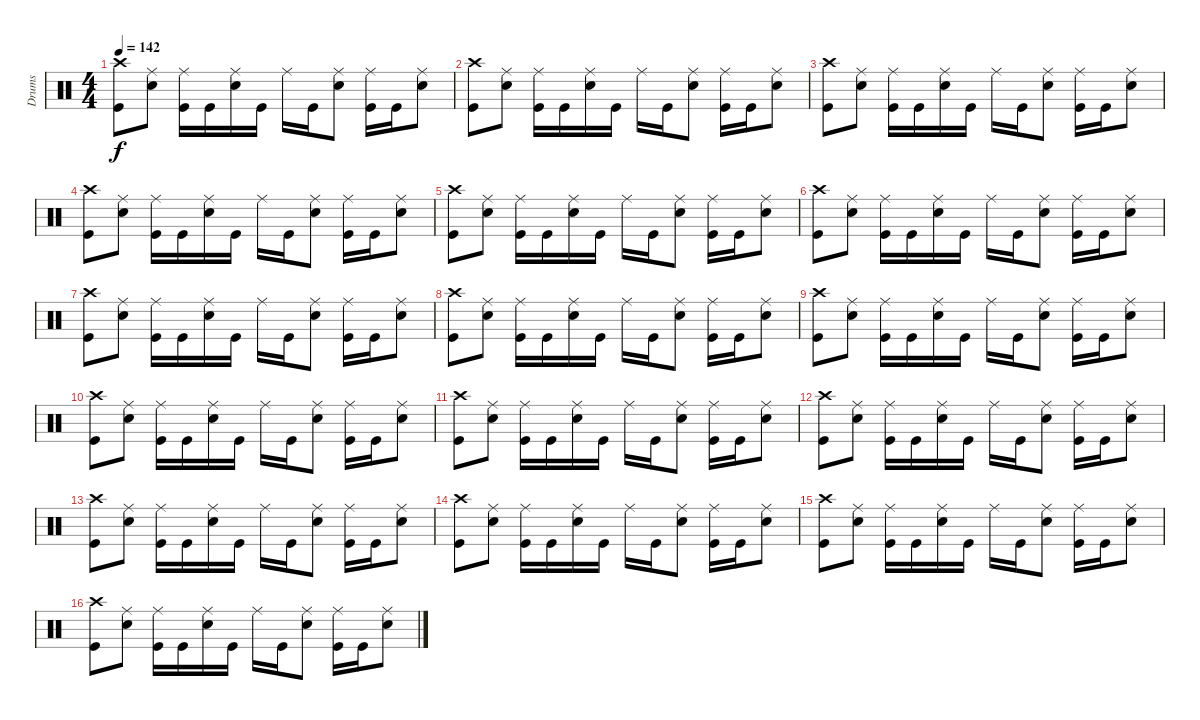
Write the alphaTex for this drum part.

\track ("Drums" "Drums") {instrument percussion}
\staff {score}
\articulation defaults
\ts (4 4)
\tempo 142
\clef neutral
\ks c
("Crash high (hit)" "Kick (hit)").8{dy f} ("Ride (middle)" "Electric Snare (hit)").8 ("Ride (middle)" "Kick (hit)").16 "Kick (hit)".16 ("Ride (middle)" "Electric Snare (hit)").16 "Kick (hit)".16 "Ride (middle)".16 "Kick (hit)".16 ("Ride (middle)" "Electric Snare (hit)").8 ("Ride (middle)" "Kick (hit)").16 "Kick (hit)".16 ("Ride (middle)" "Snare (hit) 2").8 |
("Crash high (hit)" "Kick (hit)").8 ("Ride (middle)" "Electric Snare (hit)").8 ("Ride (middle)" "Kick (hit)").16 "Kick (hit)".16 ("Ride (middle)" "Electric Snare (hit)").16 "Kick (hit)".16 "Ride (middle)".16 "Kick (hit)".16 ("Ride (middle)" "Electric Snare (hit)").8 ("Ride (middle)" "Kick (hit)").16 "Kick (hit)".16 ("Ride (middle)" "Snare (hit) 2").8 |
("Crash high (hit)" "Kick (hit)").8 ("Ride (middle)" "Electric Snare (hit)").8 ("Ride (middle)" "Kick (hit)").16 "Kick (hit)".16 ("Ride (middle)" "Electric Snare (hit)").16 "Kick (hit)".16 "Ride (middle)".16 "Kick (hit)".16 ("Ride (middle)" "Electric Snare (hit)").8 ("Ride (middle)" "Kick (hit)").16 "Kick (hit)".16 ("Ride (middle)" "Snare (hit) 2").8 |
("Crash high (hit)" "Kick (hit)").8 ("Ride (middle)" "Electric Snare (hit)").8 ("Ride (middle)" "Kick (hit)").16 "Kick (hit)".16 ("Ride (middle)" "Electric Snare (hit)").16 "Kick (hit)".16 "Ride (middle)".16 "Kick (hit)".16 ("Ride (middle)" "Electric Snare (hit)").8 ("Ride (middle)" "Kick (hit)").16 "Kick (hit)".16 ("Ride (middle)" "Snare (hit) 2").8 |
("Crash high (hit)" "Kick (hit)").8 ("Ride (middle)" "Electric Snare (hit)").8 ("Ride (middle)" "Kick (hit)").16 "Kick (hit)".16 ("Ride (middle)" "Electric Snare (hit)").16 "Kick (hit)".16 "Ride (middle)".16 "Kick (hit)".16 ("Ride (middle)" "Electric Snare (hit)").8 ("Ride (middle)" "Kick (hit)").16 "Kick (hit)".16 ("Ride (middle)" "Snare (hit) 2").8 |
("Crash high (hit)" "Kick (hit)").8 ("Ride (middle)" "Electric Snare (hit)").8 ("Ride (middle)" "Kick (hit)").16 "Kick (hit)".16 ("Ride (middle)" "Electric Snare (hit)").16 "Kick (hit)".16 "Ride (middle)".16 "Kick (hit)".16 ("Ride (middle)" "Electric Snare (hit)").8 ("Ride (middle)" "Kick (hit)").16 "Kick (hit)".16 ("Ride (middle)" "Snare (hit) 2").8 |
("Crash high (hit)" "Kick (hit)").8 ("Ride (middle)" "Electric Snare (hit)").8 ("Ride (middle)" "Kick (hit)").16 "Kick (hit)".16 ("Ride (middle)" "Electric Snare (hit)").16 "Kick (hit)".16 "Ride (middle)".16 "Kick (hit)".16 ("Ride (middle)" "Electric Snare (hit)").8 ("Ride (middle)" "Kick (hit)").16 "Kick (hit)".16 ("Ride (middle)" "Snare (hit) 2").8 |
("Crash high (hit)" "Kick (hit)").8 ("Ride (middle)" "Electric Snare (hit)").8 ("Ride (middle)" "Kick (hit)").16 "Kick (hit)".16 ("Ride (middle)" "Electric Snare (hit)").16 "Kick (hit)".16 "Ride (middle)".16 "Kick (hit)".16 ("Ride (middle)" "Electric Snare (hit)").8 ("Ride (middle)" "Kick (hit)").16 "Kick (hit)".16 ("Ride (middle)" "Snare (hit) 2").8 |
("Crash high (hit)" "Kick (hit)").8 ("Ride (middle)" "Electric Snare (hit)").8 ("Ride (middle)" "Kick (hit)").16 "Kick (hit)".16 ("Ride (middle)" "Electric Snare (hit)").16 "Kick (hit)".16 "Ride (middle)".16 "Kick (hit)".16 ("Ride (middle)" "Electric Snare (hit)").8 ("Ride (middle)" "Kick (hit)").16 "Kick (hit)".16 ("Ride (middle)" "Snare (hit) 2").8 |
("Crash high (hit)" "Kick (hit)").8 ("Ride (middle)" "Electric Snare (hit)").8 ("Ride (middle)" "Kick (hit)").16 "Kick (hit)".16 ("Ride (middle)" "Electric Snare (hit)").16 "Kick (hit)".16 "Ride (middle)".16 "Kick (hit)".16 ("Ride (middle)" "Electric Snare (hit)").8 ("Ride (middle)" "Kick (hit)").16 "Kick (hit)".16 ("Ride (middle)" "Snare (hit) 2").8 |
("Crash high (hit)" "Kick (hit)").8 ("Ride (middle)" "Electric Snare (hit)").8 ("Ride (middle)" "Kick (hit)").16 "Kick (hit)".16 ("Ride (middle)" "Electric Snare (hit)").16 "Kick (hit)".16 "Ride (middle)".16 "Kick (hit)".16 ("Ride (middle)" "Electric Snare (hit)").8 ("Ride (middle)" "Kick (hit)").16 "Kick (hit)".16 ("Ride (middle)" "Snare (hit) 2").8 |
("Crash high (hit)" "Kick (hit)").8 ("Ride (middle)" "Electric Snare (hit)").8 ("Ride (middle)" "Kick (hit)").16 "Kick (hit)".16 ("Ride (middle)" "Electric Snare (hit)").16 "Kick (hit)".16 "Ride (middle)".16 "Kick (hit)".16 ("Ride (middle)" "Electric Snare (hit)").8 ("Ride (middle)" "Kick (hit)").16 "Kick (hit)".16 ("Ride (middle)" "Snare (hit) 2").8 |
("Crash high (hit)" "Kick (hit)").8 ("Ride (middle)" "Electric Snare (hit)").8 ("Ride (middle)" "Kick (hit)").16 "Kick (hit)".16 ("Ride (middle)" "Electric Snare (hit)").16 "Kick (hit)".16 "Ride (middle)".16 "Kick (hit)".16 ("Ride (middle)" "Electric Snare (hit)").8 ("Ride (middle)" "Kick (hit)").16 "Kick (hit)".16 ("Ride (middle)" "Snare (hit) 2").8 |
("Crash high (hit)" "Kick (hit)").8 ("Ride (middle)" "Electric Snare (hit)").8 ("Ride (middle)" "Kick (hit)").16 "Kick (hit)".16 ("Ride (middle)" "Electric Snare (hit)").16 "Kick (hit)".16 "Ride (middle)".16 "Kick (hit)".16 ("Ride (middle)" "Electric Snare (hit)").8 ("Ride (middle)" "Kick (hit)").16 "Kick (hit)".16 ("Ride (middle)" "Snare (hit) 2").8 |
("Crash high (hit)" "Kick (hit)").8 ("Ride (middle)" "Electric Snare (hit)").8 ("Ride (middle)" "Kick (hit)").16 "Kick (hit)".16 ("Ride (middle)" "Electric Snare (hit)").16 "Kick (hit)".16 "Ride (middle)".16 "Kick (hit)".16 ("Ride (middle)" "Electric Snare (hit)").8 ("Ride (middle)" "Kick (hit)").16 "Kick (hit)".16 ("Ride (middle)" "Snare (hit) 2").8 |
("Crash high (hit)" "Kick (hit)").8 ("Ride (middle)" "Electric Snare (hit)").8 ("Ride (middle)" "Kick (hit)").16 "Kick (hit)".16 ("Ride (middle)" "Electric Snare (hit)").16 "Kick (hit)".16 "Ride (middle)".16 "Kick (hit)".16 ("Ride (middle)" "Electric Snare (hit)").8 ("Ride (middle)" "Kick (hit)").16 "Kick (hit)".16 ("Ride (middle)" "Snare (hit) 2").8
